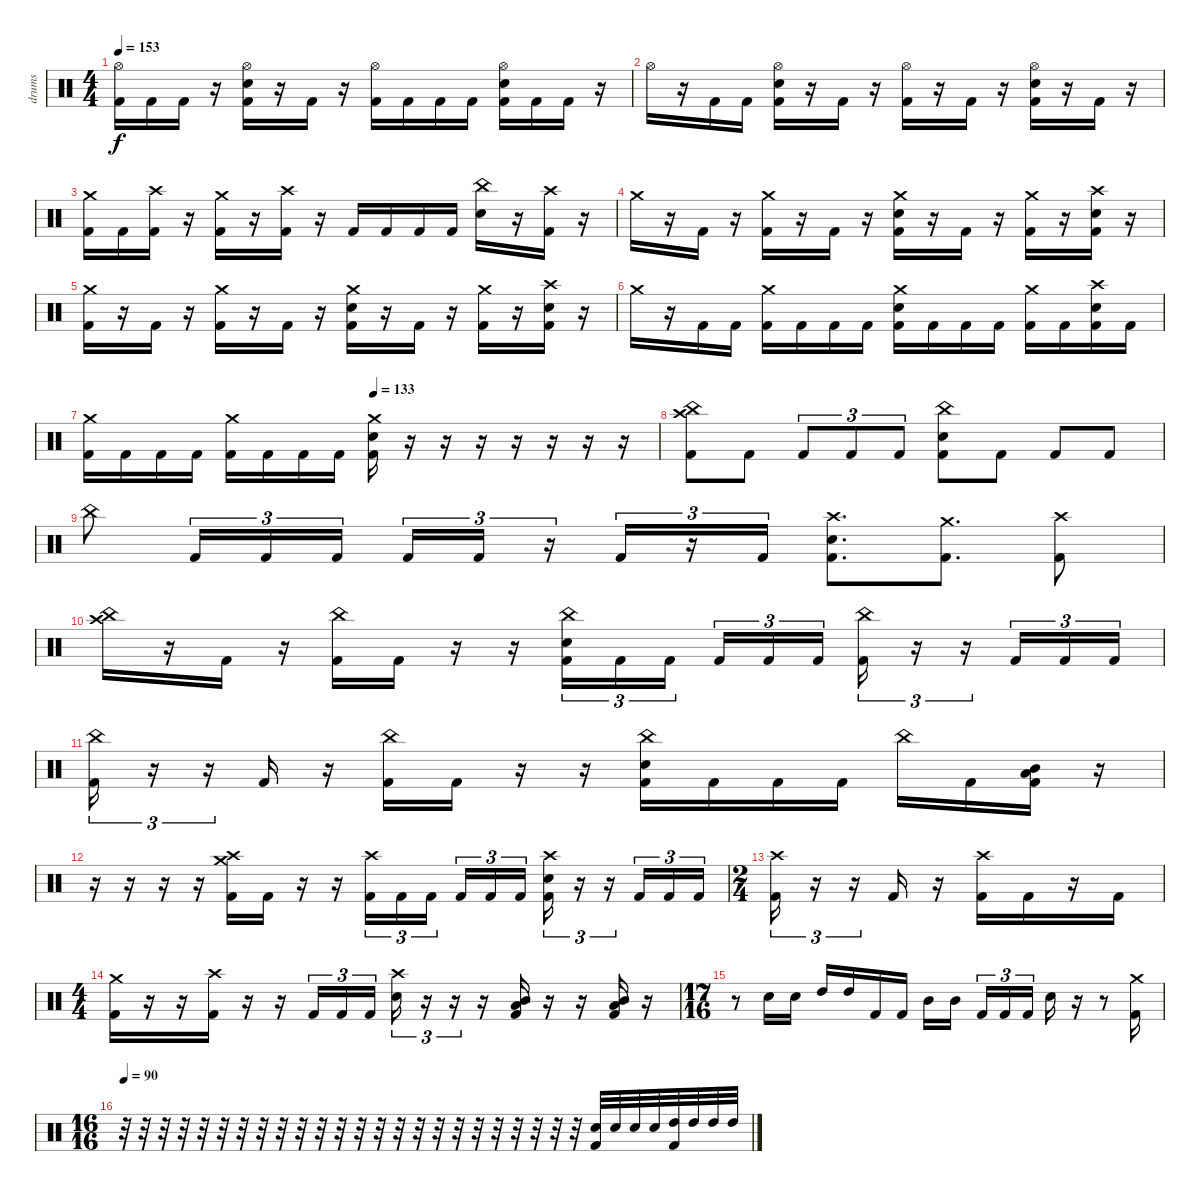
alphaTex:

\track ("drums" "drums") {instrument percussion}
\staff {score}
\articulation defaults
\ts (4 4)
\tempo 153
\clef neutral
\ks c
("Hi-Hat (open)" "Kick (hit) 2").16{dy f} "Kick (hit) 2".16 "Kick (hit) 2".16 r.16 ("Hi-Hat (open)" "Electric Snare (hit)" "Kick (hit) 2").16 r.16 "Kick (hit) 2".16 r.16 ("Hi-Hat (open)" "Kick (hit) 2").16 "Kick (hit) 2".16 "Kick (hit) 2".16 "Kick (hit) 2".16 ("Hi-Hat (open)" "Electric Snare (hit)" "Kick (hit) 2").16 "Kick (hit) 2".16 "Kick (hit) 2".16 r.16 |
"Hi-Hat (open)".16 r.16 "Kick (hit) 2".16 "Kick (hit) 2".16 ("Hi-Hat (open)" "Electric Snare (hit)" "Kick (hit) 2").16 r.16 "Kick (hit) 2".16 r.16 ("Hi-Hat (open)" "Kick (hit) 2").16 r.16 "Kick (hit) 2".16 r.16 ("Hi-Hat (open)" "Electric Snare (hit)" "Kick (hit) 2").16 r.16 "Kick (hit) 2".16 r.16 |
("Crash medium (hit)" "Kick (hit) 2").16 "Kick (hit) 2".16 ("Crash high (hit)" "Kick (hit) 2").16 r.16 ("Crash medium (hit)" "Kick (hit) 2").16 r.16 ("Crash high (hit)" "Kick (hit) 2").16 r.16 "Kick (hit) 2".16 "Kick (hit) 2".16 "Kick (hit) 2".16 "Kick (hit) 2".16 ("China (hit)" "Electric Snare (hit)").16 r.16 ("Crash high (hit)" "Kick (hit) 2").16 r.16 |
"Crash medium (hit)".16 r.16 "Kick (hit) 2".16 r.16 ("Crash medium (hit)" "Kick (hit) 2").16 r.16 "Kick (hit) 2".16 r.16 ("Crash medium (hit)" "Electric Snare (hit)" "Kick (hit) 2").16 r.16 "Kick (hit) 2".16 r.16 ("Crash medium (hit)" "Kick (hit) 2").16 r.16 ("Crash high (hit)" "Electric Snare (hit)" "Kick (hit) 2").16 r.16 |
("Crash medium (hit)" "Kick (hit) 2").16 r.16 "Kick (hit) 2".16 r.16 ("Crash medium (hit)" "Kick (hit) 2").16 r.16 "Kick (hit) 2".16 r.16 ("Crash medium (hit)" "Electric Snare (hit)" "Kick (hit) 2").16 r.16 "Kick (hit) 2".16 r.16 ("Crash medium (hit)" "Kick (hit) 2").16 r.16 ("Crash high (hit)" "Electric Snare (hit)" "Kick (hit) 2").16 r.16 |
"Crash medium (hit)".16 r.16 "Kick (hit) 2".16 "Kick (hit) 2".16 ("Crash medium (hit)" "Kick (hit) 2").16 "Kick (hit) 2".16 "Kick (hit) 2".16 "Kick (hit) 2".16 ("Crash medium (hit)" "Electric Snare (hit)" "Kick (hit) 2").16 "Kick (hit) 2".16 "Kick (hit) 2".16 "Kick (hit) 2".16 ("Crash medium (hit)" "Kick (hit) 2").16 "Kick (hit) 2".16 ("Crash high (hit)" "Electric Snare (hit)" "Kick (hit) 2").16 "Kick (hit) 2".16 |
\tempo (133 0.5)
("Crash medium (hit)" "Kick (hit) 2").16 "Kick (hit) 2".16 "Kick (hit) 2".16 "Kick (hit) 2".16 ("Crash medium (hit)" "Kick (hit) 2").16 "Kick (hit) 2".16 "Kick (hit) 2".16 "Kick (hit) 2".16 ("Crash medium (hit)" "Electric Snare (hit)" "Kick (hit) 2").16 r.16 r.16 r.16 r.16 r.16 r.16 r.16 |
("China (hit)" "Crash high (hit)" "Kick (hit) 2").8 "Kick (hit) 2".8 "Kick (hit) 2".8{tu (3 2)} "Kick (hit) 2".8{tu (3 2)} "Kick (hit) 2".8{tu (3 2)} ("China (hit)" "Electric Snare (hit)" "Kick (hit) 2").8 "Kick (hit) 2".8 "Kick (hit) 2".8 "Kick (hit) 2".8 |
"China (hit)".8 "Kick (hit) 2".16{tu (3 2)} "Kick (hit) 2".16{tu (3 2)} "Kick (hit) 2".16{tu (3 2)} "Kick (hit) 2".16{tu (3 2)} "Kick (hit) 2".16{tu (3 2)} r.16{tu (3 2)} "Kick (hit) 2".16{tu (3 2)} r.16{tu (3 2)} "Kick (hit) 2".16{tu (3 2)} ("Crash high (hit)" "Electric Snare (hit)" "Kick (hit) 2").8{d} ("Crash medium (hit)" "Kick (hit) 2").8{d} ("Crash high (hit)" "Kick (hit) 2").8 |
("China (hit)" "Crash high (hit)").16 r.16 "Kick (hit) 2".16 r.16 ("China (hit)" "Kick (hit) 2").16 "Kick (hit) 2".16 r.16 r.16 ("China (hit)" "Electric Snare (hit)" "Kick (hit) 2").16{tu (3 2)} "Kick (hit) 2".16{tu (3 2)} "Kick (hit) 2".16{tu (3 2) beam splitsecondary} "Kick (hit) 2".16{tu (3 2)} "Kick (hit) 2".16{tu (3 2)} "Kick (hit) 2".16{tu (3 2)} ("China (hit)" "Kick (hit) 2").16{tu (3 2)} r.16{tu (3 2)} r.16{tu (3 2)} "Kick (hit) 2".16{tu (3 2)} "Kick (hit) 2".16{tu (3 2)} "Kick (hit) 2".16{tu (3 2)} |
("China (hit)" "Kick (hit) 2").16{tu (3 2)} r.16{tu (3 2)} r.16{tu (3 2)} "Kick (hit) 2".16 r.16 ("China (hit)" "Kick (hit) 2").16 "Kick (hit) 2".16 r.16 r.16 ("China (hit)" "Electric Snare (hit)" "Kick (hit) 2").16 "Kick (hit) 2".16 "Kick (hit) 2".16 "Kick (hit) 2".16 "China (hit)".16 "Kick (hit) 2".16 ("Mid Tom (hit)" "Low Floor Tom (hit)" "Kick (hit) 2").16 r.16 |
r.16 r.16 r.16 r.16 ("Crash high (hit)" "Crash medium (hit)" "Kick (hit) 2").16 "Kick (hit) 2".16 r.16 r.16 ("Crash high (hit)" "Kick (hit) 2").16{tu (3 2)} "Kick (hit) 2".16{tu (3 2)} "Kick (hit) 2".16{tu (3 2) beam splitsecondary} "Kick (hit) 2".16{tu (3 2)} "Kick (hit) 2".16{tu (3 2)} "Kick (hit) 2".16{tu (3 2)} ("Crash high (hit)" "Electric Snare (hit)" "Kick (hit) 2").16{tu (3 2)} r.16{tu (3 2)} r.16{tu (3 2)} "Kick (hit) 2".16{tu (3 2)} "Kick (hit) 2".16{tu (3 2)} "Kick (hit) 2".16{tu (3 2)} |
\ts (2 4)
("Crash high (hit)" "Kick (hit) 2").16{tu (3 2)} r.16{tu (3 2)} r.16{tu (3 2)} "Kick (hit) 2".16 r.16 ("Crash high (hit)" "Kick (hit) 2").16 "Kick (hit) 2".16 r.16 "Kick (hit) 2".16 |
\ts (4 4)
("Crash medium (hit)" "Kick (hit) 2").16 r.16 r.16 ("Crash high (hit)" "Kick (hit) 2").16 r.16 r.16 "Kick (hit) 2".16{tu (3 2)} "Kick (hit) 2".16{tu (3 2)} "Kick (hit) 2".16{tu (3 2)} ("Crash high (hit)" "Electric Snare (hit)").16{tu (3 2)} r.16{tu (3 2)} r.16{tu (3 2)} r.16 ("Low Floor Tom (hit)" "Mid Tom (hit)" "Kick (hit) 2").16 r.16 r.16 ("Low Floor Tom (hit)" "Mid Tom (hit)" "Kick (hit) 2").16 r.16 |
\ts (17 16)
r.8 "Electric Snare (hit)".16 "Electric Snare (hit)".16 "High Tom (hit)".16 "High Tom (hit)".16 "Kick (hit) 2".16 "Kick (hit) 2".16 "Mid Tom (hit)".16 "Mid Tom (hit)".16 "Kick (hit) 2".16{tu (3 2)} "Kick (hit) 2".16{tu (3 2)} "Kick (hit) 2".16{tu (3 2)} "Electric Snare (hit)".16 r.16 r.8 ("Crash medium (hit)" "Kick (hit) 2").16 |
\ts (16 16)
\tempo 90
r.32 r.32 r.32 r.32 r.32 r.32 r.32 r.32 r.32 r.32 r.32 r.32 r.32 r.32 r.32 r.32 r.32 r.32 r.32 r.32 r.32 r.32 r.32 r.32 ("Electric Snare (hit)" "Kick (hit) 2").32 "Electric Snare (hit)".32 "Electric Snare (hit)".32 "Electric Snare (hit)".32 ("High Tom (hit)" "Kick (hit) 2").32 "High Tom (hit)".32 "High Tom (hit)".32 "High Tom (hit)".32
